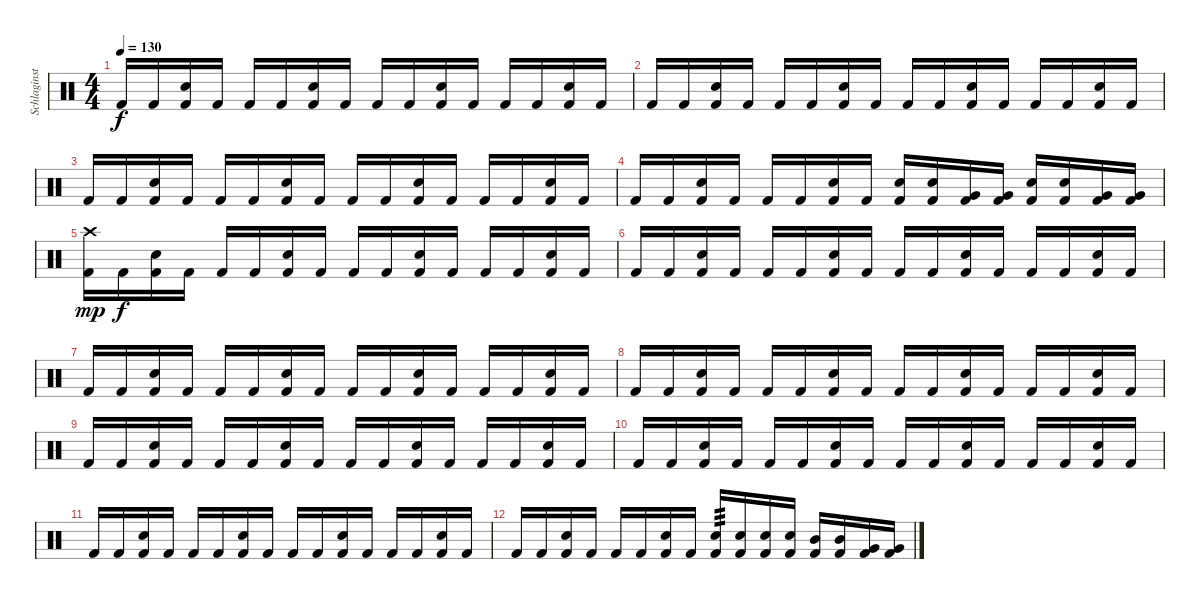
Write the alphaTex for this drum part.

\track ("Schlaginstrumente - Auswahl" "Schlaginst") {instrument percussion}
\staff {score}
\articulation defaults
\ts (4 4)
\tempo 130
\clef neutral
\ks c "Kick (hit) 2".16{dy f} "Kick (hit) 2".16
("Electric Snare (hit)" "Kick (hit) 2").16 "Kick (hit) 2".16 "Kick (hit) 2".16 "Kick (hit) 2".16 ("Electric Snare (hit)" "Kick (hit) 2").16 "Kick (hit) 2".16 "Kick (hit) 2".16 "Kick (hit) 2".16 ("Electric Snare (hit)" "Kick (hit) 2").16 "Kick (hit) 2".16 "Kick (hit) 2".16 "Kick (hit) 2".16 ("Electric Snare (hit)" "Kick (hit) 2").16 "Kick (hit) 2".16 |
"Kick (hit) 2".16 "Kick (hit) 2".16 ("Electric Snare (hit)" "Kick (hit) 2").16 "Kick (hit) 2".16 "Kick (hit) 2".16 "Kick (hit) 2".16 ("Electric Snare (hit)" "Kick (hit) 2").16 "Kick (hit) 2".16 "Kick (hit) 2".16 "Kick (hit) 2".16 ("Electric Snare (hit)" "Kick (hit) 2").16 "Kick (hit) 2".16 "Kick (hit) 2".16 "Kick (hit) 2".16 ("Electric Snare (hit)" "Kick (hit) 2").16 "Kick (hit) 2".16 |
"Kick (hit) 2".16 "Kick (hit) 2".16 ("Electric Snare (hit)" "Kick (hit) 2").16 "Kick (hit) 2".16 "Kick (hit) 2".16 "Kick (hit) 2".16 ("Electric Snare (hit)" "Kick (hit) 2").16 "Kick (hit) 2".16 "Kick (hit) 2".16 "Kick (hit) 2".16 ("Electric Snare (hit)" "Kick (hit) 2").16 "Kick (hit) 2".16 "Kick (hit) 2".16 "Kick (hit) 2".16 ("Electric Snare (hit)" "Kick (hit) 2").16 "Kick (hit) 2".16 |
"Kick (hit) 2".16 "Kick (hit) 2".16 ("Electric Snare (hit)" "Kick (hit) 2").16 "Kick (hit) 2".16 "Kick (hit) 2".16 "Kick (hit) 2".16 ("Electric Snare (hit)" "Kick (hit) 2").16 "Kick (hit) 2".16 ("Electric Snare (hit)" "Kick (hit) 2").16 ("Electric Snare (hit)" "Kick (hit) 2").16 ("Very Low Tom (hit)" "Kick (hit) 2").16 ("Very Low Tom (hit)" "Kick (hit) 2").16 ("Electric Snare (hit)" "Kick (hit) 2").16 ("Electric Snare (hit)" "Kick (hit) 2").16 ("Very Low Tom (hit)" "Kick (hit) 2").16 ("Very Low Tom (hit)" "Kick (hit) 2").16 |
("Crash high (hit)" "Kick (hit) 2").16{dy mp volume 0} "Kick (hit) 2".16{dy f} ("Electric Snare (hit)" "Kick (hit) 2").16 "Kick (hit) 2".16 "Kick (hit) 2".16 "Kick (hit) 2".16 ("Electric Snare (hit)" "Kick (hit) 2").16 "Kick (hit) 2".16 "Kick (hit) 2".16 "Kick (hit) 2".16 ("Electric Snare (hit)" "Kick (hit) 2").16 "Kick (hit) 2".16 "Kick (hit) 2".16 "Kick (hit) 2".16 ("Electric Snare (hit)" "Kick (hit) 2").16 "Kick (hit) 2".16 |
"Kick (hit) 2".16 "Kick (hit) 2".16 ("Electric Snare (hit)" "Kick (hit) 2").16 "Kick (hit) 2".16 "Kick (hit) 2".16 "Kick (hit) 2".16 ("Electric Snare (hit)" "Kick (hit) 2").16 "Kick (hit) 2".16 "Kick (hit) 2".16 "Kick (hit) 2".16 ("Electric Snare (hit)" "Kick (hit) 2").16 "Kick (hit) 2".16 "Kick (hit) 2".16 "Kick (hit) 2".16 ("Electric Snare (hit)" "Kick (hit) 2").16 "Kick (hit) 2".16 |
"Kick (hit) 2".16 "Kick (hit) 2".16 ("Electric Snare (hit)" "Kick (hit) 2").16 "Kick (hit) 2".16 "Kick (hit) 2".16 "Kick (hit) 2".16 ("Electric Snare (hit)" "Kick (hit) 2").16 "Kick (hit) 2".16 "Kick (hit) 2".16 "Kick (hit) 2".16 ("Electric Snare (hit)" "Kick (hit) 2").16 "Kick (hit) 2".16 "Kick (hit) 2".16 "Kick (hit) 2".16 ("Electric Snare (hit)" "Kick (hit) 2").16 "Kick (hit) 2".16 |
"Kick (hit) 2".16 "Kick (hit) 2".16 ("Electric Snare (hit)" "Kick (hit) 2").16 "Kick (hit) 2".16 "Kick (hit) 2".16 "Kick (hit) 2".16 ("Electric Snare (hit)" "Kick (hit) 2").16 "Kick (hit) 2".16 "Kick (hit) 2".16 "Kick (hit) 2".16 ("Electric Snare (hit)" "Kick (hit) 2").16 "Kick (hit) 2".16 "Kick (hit) 2".16 "Kick (hit) 2".16 ("Electric Snare (hit)" "Kick (hit) 2").16 "Kick (hit) 2".16 |
"Kick (hit) 2".16 "Kick (hit) 2".16 ("Electric Snare (hit)" "Kick (hit) 2").16 "Kick (hit) 2".16 "Kick (hit) 2".16 "Kick (hit) 2".16 ("Electric Snare (hit)" "Kick (hit) 2").16 "Kick (hit) 2".16 "Kick (hit) 2".16 "Kick (hit) 2".16 ("Electric Snare (hit)" "Kick (hit) 2").16 "Kick (hit) 2".16 "Kick (hit) 2".16 "Kick (hit) 2".16 ("Electric Snare (hit)" "Kick (hit) 2").16 "Kick (hit) 2".16 |
"Kick (hit) 2".16 "Kick (hit) 2".16 ("Electric Snare (hit)" "Kick (hit) 2").16 "Kick (hit) 2".16 "Kick (hit) 2".16 "Kick (hit) 2".16 ("Electric Snare (hit)" "Kick (hit) 2").16 "Kick (hit) 2".16 "Kick (hit) 2".16 "Kick (hit) 2".16 ("Electric Snare (hit)" "Kick (hit) 2").16 "Kick (hit) 2".16 "Kick (hit) 2".16 "Kick (hit) 2".16 ("Electric Snare (hit)" "Kick (hit) 2").16 "Kick (hit) 2".16 |
"Kick (hit) 2".16 "Kick (hit) 2".16 ("Electric Snare (hit)" "Kick (hit) 2").16 "Kick (hit) 2".16 "Kick (hit) 2".16 "Kick (hit) 2".16 ("Electric Snare (hit)" "Kick (hit) 2").16 "Kick (hit) 2".16 "Kick (hit) 2".16 "Kick (hit) 2".16 ("Electric Snare (hit)" "Kick (hit) 2").16 "Kick (hit) 2".16 "Kick (hit) 2".16 "Kick (hit) 2".16 ("Electric Snare (hit)" "Kick (hit) 2").16 "Kick (hit) 2".16 |
"Kick (hit) 2".16 "Kick (hit) 2".16 ("Electric Snare (hit)" "Kick (hit) 2").16 "Kick (hit) 2".16 "Kick (hit) 2".16 "Kick (hit) 2".16 ("Electric Snare (hit)" "Kick (hit) 2").16 "Kick (hit) 2".16 ("Electric Snare (hit)" "Kick (hit) 2").16{tp 3} ("Electric Snare (hit)" "Kick (hit) 2").16 ("Electric Snare (hit)" "Kick (hit) 2").16 ("Electric Snare (hit)" "Kick (hit) 2").16 ("Mid Tom (hit)" "Kick (hit) 2").16 ("Mid Tom (hit)" "Kick (hit) 2").16 ("Very Low Tom (hit)" "Kick (hit) 2").16 ("Very Low Tom (hit)" "Kick (hit) 2").16
